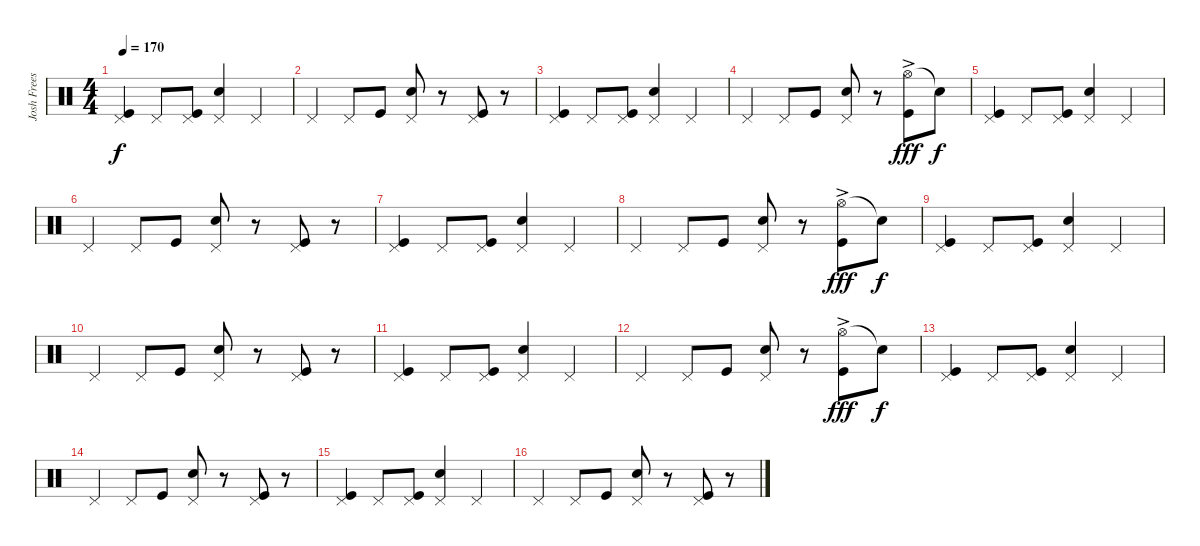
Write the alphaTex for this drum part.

\track ("Josh Freese - Drums" "Josh Frees") {instrument percussion}
\staff {score}
\articulation defaults
\ts (4 4)
\tempo 170
\clef neutral
\ks c
("Pedal Hi-Hat (hit)" "Kick (hit)").4{dy f} "Pedal Hi-Hat (hit)".8 ("Pedal Hi-Hat (hit)" "Kick (hit)").8 ("Pedal Hi-Hat (hit)" "Electric Snare (hit)").4 "Pedal Hi-Hat (hit)".4 |
"Pedal Hi-Hat (hit)".4 "Pedal Hi-Hat (hit)".8 "Kick (hit)".8 ("Pedal Hi-Hat (hit)" "Electric Snare (hit)").8 r.8 ("Pedal Hi-Hat (hit)" "Kick (hit)").8 r.8 |
("Pedal Hi-Hat (hit)" "Kick (hit)").4 "Pedal Hi-Hat (hit)".8 ("Pedal Hi-Hat (hit)" "Kick (hit)").8 ("Pedal Hi-Hat (hit)" "Electric Snare (hit)").4 "Pedal Hi-Hat (hit)".4 |
"Pedal Hi-Hat (hit)".4 "Pedal Hi-Hat (hit)".8 "Kick (hit)".8 ("Pedal Hi-Hat (hit)" "Electric Snare (hit)").8 r.8 ("Hi-Hat (open)"{ac} "Kick (hit)").8{dy fff} "Snare (hit)"{t}.8{dy f} |
("Pedal Hi-Hat (hit)" "Kick (hit)").4 "Pedal Hi-Hat (hit)".8 ("Pedal Hi-Hat (hit)" "Kick (hit)").8 ("Pedal Hi-Hat (hit)" "Electric Snare (hit)").4 "Pedal Hi-Hat (hit)".4 |
"Pedal Hi-Hat (hit)".4 "Pedal Hi-Hat (hit)".8 "Kick (hit)".8 ("Pedal Hi-Hat (hit)" "Electric Snare (hit)").8 r.8 ("Pedal Hi-Hat (hit)" "Kick (hit)").8 r.8 |
("Pedal Hi-Hat (hit)" "Kick (hit)").4 "Pedal Hi-Hat (hit)".8 ("Pedal Hi-Hat (hit)" "Kick (hit)").8 ("Pedal Hi-Hat (hit)" "Electric Snare (hit)").4 "Pedal Hi-Hat (hit)".4 |
"Pedal Hi-Hat (hit)".4 "Pedal Hi-Hat (hit)".8 "Kick (hit)".8 ("Pedal Hi-Hat (hit)" "Electric Snare (hit)").8 r.8 ("Hi-Hat (open)"{ac} "Kick (hit)").8{dy fff} "Snare (hit)"{t}.8{dy f} |
("Pedal Hi-Hat (hit)" "Kick (hit)").4 "Pedal Hi-Hat (hit)".8 ("Pedal Hi-Hat (hit)" "Kick (hit)").8 ("Pedal Hi-Hat (hit)" "Electric Snare (hit)").4 "Pedal Hi-Hat (hit)".4 |
"Pedal Hi-Hat (hit)".4 "Pedal Hi-Hat (hit)".8 "Kick (hit)".8 ("Pedal Hi-Hat (hit)" "Electric Snare (hit)").8 r.8 ("Pedal Hi-Hat (hit)" "Kick (hit)").8 r.8 |
("Pedal Hi-Hat (hit)" "Kick (hit)").4 "Pedal Hi-Hat (hit)".8 ("Pedal Hi-Hat (hit)" "Kick (hit)").8 ("Pedal Hi-Hat (hit)" "Electric Snare (hit)").4 "Pedal Hi-Hat (hit)".4 |
"Pedal Hi-Hat (hit)".4 "Pedal Hi-Hat (hit)".8 "Kick (hit)".8 ("Pedal Hi-Hat (hit)" "Electric Snare (hit)").8 r.8 ("Hi-Hat (open)"{ac} "Kick (hit)").8{dy fff} "Snare (hit)"{t}.8{dy f} |
("Pedal Hi-Hat (hit)" "Kick (hit)").4 "Pedal Hi-Hat (hit)".8 ("Pedal Hi-Hat (hit)" "Kick (hit)").8 ("Pedal Hi-Hat (hit)" "Electric Snare (hit)").4 "Pedal Hi-Hat (hit)".4 |
"Pedal Hi-Hat (hit)".4 "Pedal Hi-Hat (hit)".8 "Kick (hit)".8 ("Pedal Hi-Hat (hit)" "Electric Snare (hit)").8 r.8 ("Pedal Hi-Hat (hit)" "Kick (hit)").8 r.8 |
("Pedal Hi-Hat (hit)" "Kick (hit)").4 "Pedal Hi-Hat (hit)".8 ("Pedal Hi-Hat (hit)" "Kick (hit)").8 ("Pedal Hi-Hat (hit)" "Electric Snare (hit)").4 "Pedal Hi-Hat (hit)".4 |
"Pedal Hi-Hat (hit)".4 "Pedal Hi-Hat (hit)".8 "Kick (hit)".8 ("Pedal Hi-Hat (hit)" "Electric Snare (hit)").8 r.8 ("Pedal Hi-Hat (hit)" "Kick (hit)").8 r.8
